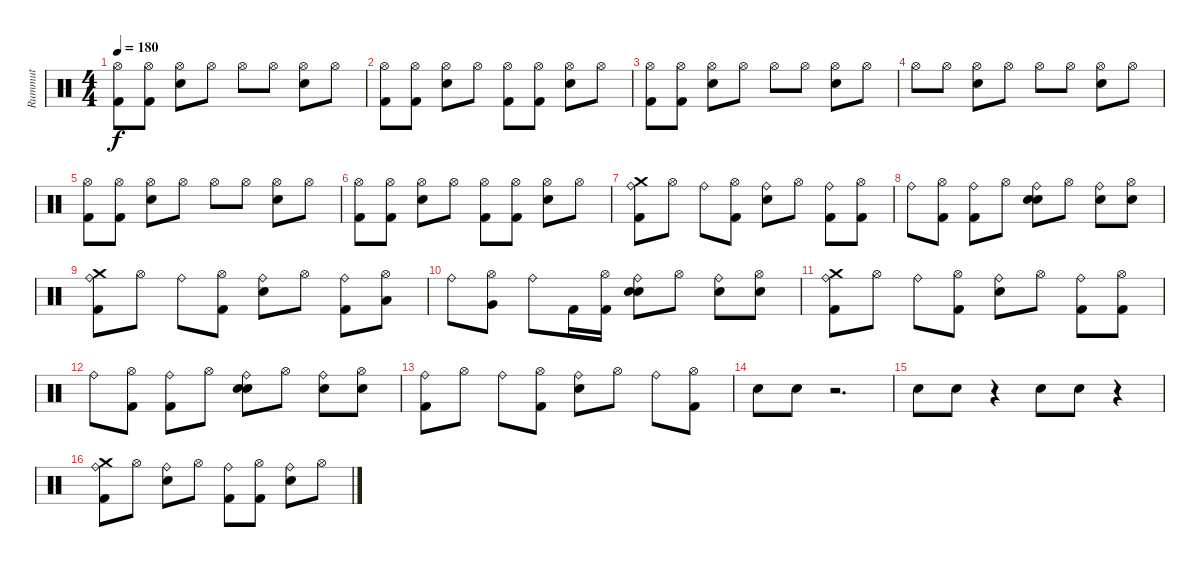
\track ("Rummut" "Rummut") {instrument percussion}
\staff {score}
\articulation defaults
\ts (4 4)
\tempo 180
\clef neutral
\ks c
("Hi-Hat (open)" "Kick (hit) 2").8{dy f} ("Hi-Hat (open)"{x} "Kick (hit) 2").8 ("Hi-Hat (open)" "Snare (hit) 2").8 "Hi-Hat (open)"{x}.8 "Hi-Hat (open)".8 "Hi-Hat (open)"{x}.8 ("Hi-Hat (open)" "Snare (hit) 2").8 "Hi-Hat (open)"{x}.8 |
("Hi-Hat (open)" "Kick (hit) 2").8 ("Hi-Hat (open)"{x} "Kick (hit) 2").8 ("Hi-Hat (open)" "Snare (hit) 2").8 "Hi-Hat (open)"{x}.8 ("Hi-Hat (open)" "Kick (hit) 2").8 ("Hi-Hat (open)"{x} "Kick (hit) 2").8 ("Hi-Hat (open)" "Snare (hit) 2").8 "Hi-Hat (open)"{x}.8 |
("Hi-Hat (open)" "Kick (hit) 2").8 ("Hi-Hat (open)"{x} "Kick (hit) 2").8 ("Hi-Hat (open)" "Snare (hit) 2").8 "Hi-Hat (open)"{x}.8 "Hi-Hat (open)".8 "Hi-Hat (open)"{x}.8 ("Hi-Hat (open)" "Snare (hit) 2").8 "Hi-Hat (open)"{x}.8 |
"Hi-Hat (open)".8 "Hi-Hat (open)"{x}.8 ("Hi-Hat (open)" "Snare (hit) 2").8 "Hi-Hat (open)"{x}.8 "Hi-Hat (open)".8 "Hi-Hat (open)"{x}.8 ("Hi-Hat (open)" "Snare (hit) 2").8 "Hi-Hat (open)"{x}.8 |
("Hi-Hat (open)" "Kick (hit) 2").8 ("Hi-Hat (open)"{x} "Kick (hit) 2").8 ("Hi-Hat (open)" "Snare (hit) 2").8 "Hi-Hat (open)"{x}.8 "Hi-Hat (open)".8 "Hi-Hat (open)"{x}.8 ("Hi-Hat (open)" "Snare (hit) 2").8 "Hi-Hat (open)"{x}.8 |
("Hi-Hat (open)" "Kick (hit) 2").8 ("Hi-Hat (open)"{x} "Kick (hit) 2").8 ("Hi-Hat (open)" "Snare (hit) 2").8 "Hi-Hat (open)"{x}.8 ("Hi-Hat (open)" "Kick (hit) 2").8 ("Hi-Hat (open)"{x} "Kick (hit) 2").8 ("Hi-Hat (open)" "Snare (hit) 2").8 "Hi-Hat (open)"{x}.8 |
("Ride (bell)" "Kick (hit) 2" "Crash medium (hit)").8 "Hi-Hat (open)"{x}.8 "Ride (bell)".8 ("Hi-Hat (open)"{x} "Kick (hit) 2").8 ("Ride (bell)" "Snare (hit) 2").8 "Hi-Hat (open)"{x}.8 ("Ride (bell)" "Kick (hit) 2").8 ("Hi-Hat (open)"{x} "Kick (hit) 2").8 |
"Ride (bell)".8 ("Hi-Hat (open)"{x} "Kick (hit) 2").8 ("Ride (bell)" "Kick (hit) 2").8 "Hi-Hat (open)"{x}.8 ("Ride (bell)" "Snare (hit) 2" "Snare (hit) 2").8 "Hi-Hat (open)"{x}.8 ("Ride (bell)" "Snare (hit) 2").8 ("Hi-Hat (open)"{x} "Snare (hit) 2").8 |
("Ride (bell)" "Kick (hit) 2" "Crash medium (hit)").8 "Hi-Hat (open)"{x}.8 "Ride (bell)".8 ("Hi-Hat (open)"{x} "Kick (hit) 2").8 ("Ride (bell)" "Snare (hit) 2").8 "Hi-Hat (open)"{x}.8 ("Ride (bell)" "Kick (hit) 2").8 ("Hi-Hat (open)"{x} "Low Tom (hit)").8 |
"Ride (bell)".8 ("Hi-Hat (open)"{x} "Very Low Tom (hit)").8 "Ride (bell)".8 "Kick (hit) 2".16 ("Hi-Hat (open)"{x} "Kick (hit) 2").16 ("Ride (bell)" "Snare (hit) 2" "Snare (hit) 2").8 "Hi-Hat (open)"{x}.8 ("Ride (bell)" "Snare (hit) 2").8 ("Hi-Hat (open)"{x} "Snare (hit) 2").8 |
("Ride (bell)" "Kick (hit) 2" "Crash medium (hit)").8 "Hi-Hat (open)"{x}.8 "Ride (bell)".8 ("Hi-Hat (open)"{x} "Kick (hit) 2").8 ("Ride (bell)" "Snare (hit) 2").8 "Hi-Hat (open)"{x}.8 ("Ride (bell)" "Kick (hit) 2").8 ("Hi-Hat (open)"{x} "Kick (hit) 2").8 |
"Ride (bell)".8 ("Hi-Hat (open)"{x} "Kick (hit) 2").8 ("Ride (bell)" "Kick (hit) 2").8 "Hi-Hat (open)"{x}.8 ("Ride (bell)" "Snare (hit) 2" "Snare (hit) 2").8 "Hi-Hat (open)"{x}.8 ("Ride (bell)" "Snare (hit) 2").8 ("Hi-Hat (open)"{x} "Snare (hit) 2").8 |
("Ride (bell)" "Kick (hit) 2").8 "Hi-Hat (open)"{x}.8 "Ride (bell)".8 ("Hi-Hat (open)"{x} "Kick (hit) 2").8 ("Ride (bell)" "Snare (hit) 2").8 "Hi-Hat (open)"{x}.8 "Ride (bell)".8 ("Hi-Hat (open)"{x} "Kick (hit) 2").8 |
"Snare (hit) 2".8 "Snare (hit) 2".8 r.2{d} |
"Snare (hit) 2".8 "Snare (hit) 2".8 r.4 "Snare (hit) 2".8 "Snare (hit) 2".8 r.4 |
("Ride (bell)" "Crash medium (hit)" "Kick (hit) 2").8{volume 15} "Hi-Hat (open)"{x}.8 ("Ride (bell)" "Snare (hit) 2").8 "Hi-Hat (open)"{x}.8 ("Ride (bell)" "Kick (hit) 2").8 ("Hi-Hat (open)"{x} "Kick (hit) 2").8 ("Ride (bell)" "Snare (hit) 2").8 "Hi-Hat (open)"{x}.8
